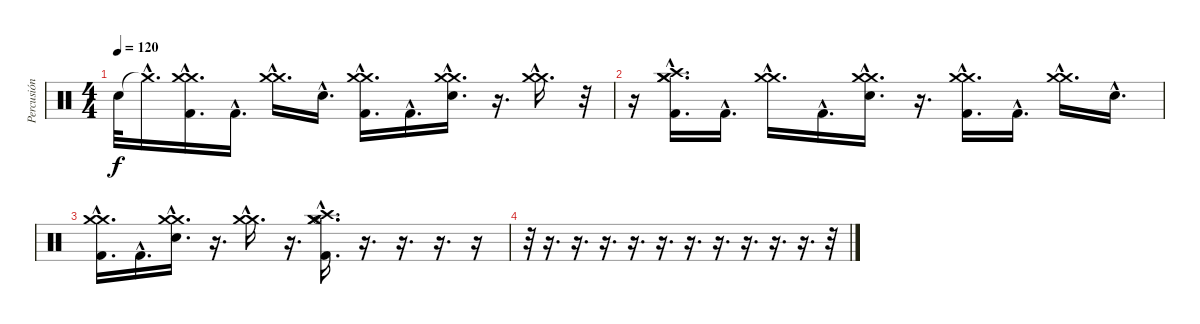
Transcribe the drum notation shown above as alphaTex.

\track ("Percusión" "Percusión") {instrument percussion}
\staff {score}
\articulation defaults
\ts (4 4)
\tempo 120
\clef neutral
\ks c "Snare (hit)"{t}.32{dy f} "Crash medium (hit)"{hac t}.16{d}
("Kick (hit) 2"{hac} "Crash medium (hit)"{hac} "Crash medium (hit)"{hac}).16{d} "Kick (hit) 2"{hac}.16{d} ("Crash medium (hit)"{hac} "Crash medium (hit)"{hac}).16{d} "Electric Snare (hit)"{hac}.16{d} ("Kick (hit) 2"{hac} "Crash medium (hit)"{hac} "Crash medium (hit)"{hac}).16{d} "Kick (hit) 2"{hac}.16{d} ("Electric Snare (hit)"{hac} "Crash medium (hit)"{hac} "Crash medium (hit)"{hac}).16{d} r.16{d} ("Crash medium (hit)"{hac} "Crash medium (hit)"{hac}).16{d} r.32 |
r.16 ("Kick (hit) 2"{hac} "Crash high (hit)"{hac} "Crash medium (hit)"{hac} "Crash medium (hit)"{hac}).16{d} "Kick (hit) 2"{hac}.16{d} ("Crash medium (hit)"{hac} "Crash medium (hit)"{hac}).16{d} "Kick (hit) 2"{hac}.16{d} ("Electric Snare (hit)"{hac} "Crash medium (hit)"{hac} "Crash medium (hit)"{hac}).16{d} r.16{d} ("Kick (hit) 2"{hac} "Crash medium (hit)"{hac} "Crash medium (hit)"{hac}).16{d} "Kick (hit) 2"{hac}.16{d} ("Crash medium (hit)"{hac} "Crash medium (hit)"{hac}).16{d} "Electric Snare (hit)"{hac}.16{d} |
("Kick (hit) 2"{hac} "Crash medium (hit)"{hac} "Crash medium (hit)"{hac}).16{d} "Kick (hit) 2"{hac}.16{d} ("Electric Snare (hit)"{hac} "Crash medium (hit)"{hac} "Crash medium (hit)"{hac}).16{d} r.16{d} ("Crash medium (hit)"{hac} "Crash medium (hit)"{hac}).16{d} r.16{d} ("Kick (hit) 2"{hac} "Crash high (hit)"{hac} "Crash medium (hit)"{hac} "Crash medium (hit)"{hac} "Hi-Hat (open)"{hac}).16{d} r.16{d} r.16{d} r.16{d} r.16 |
r.32 r.16{d} r.16{d} r.16{d} r.16{d} r.16{d} r.16{d} r.16{d} r.16{d} r.16{d} r.16{d} r.32
